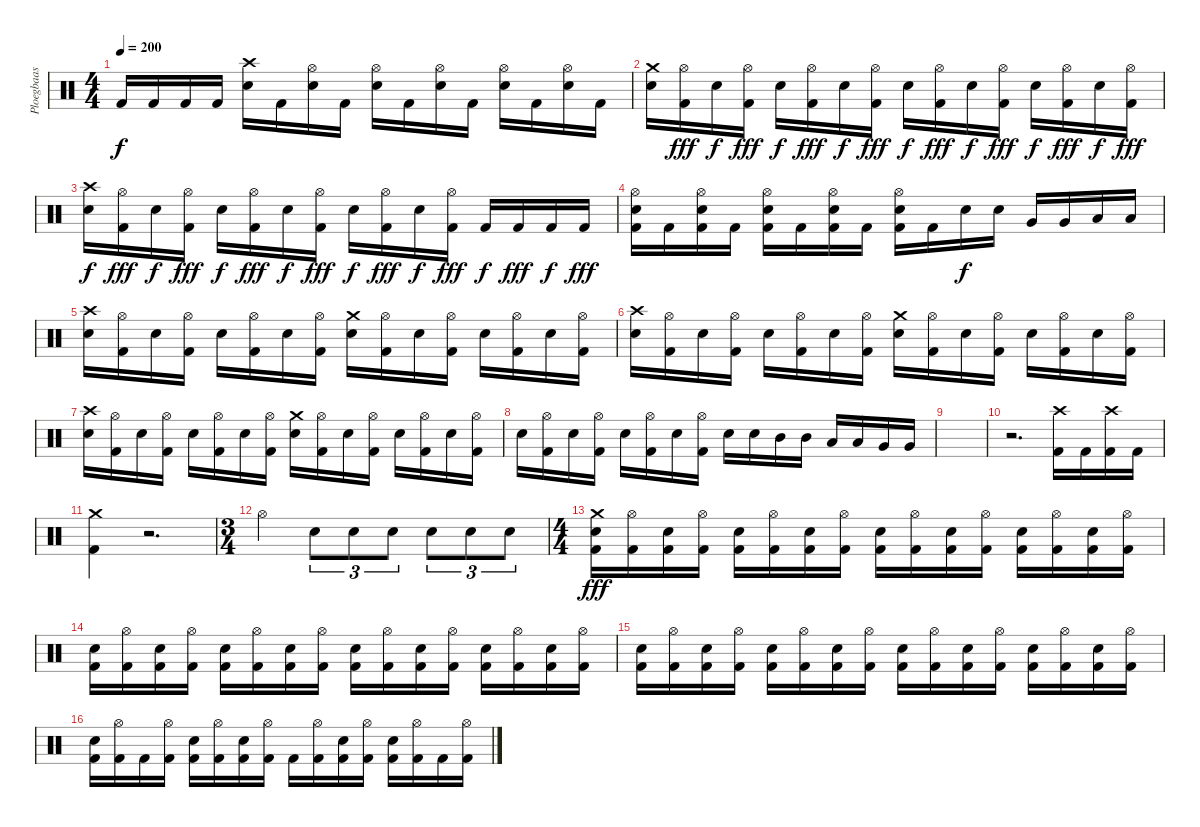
\track ("Ploegbaas" "Ploegbaas") {instrument percussion}
\staff {score}
\articulation defaults
\ts (4 4)
\tempo 200
\clef neutral
\ks c "Kick (hit) 2".16{dy f} "Kick (hit) 2".16 "Kick (hit) 2".16 "Kick (hit) 2".16
("Crash high (hit)" "Electric Snare (hit)").16 "Kick (hit) 2".16 ("Hi-Hat (open)" "Electric Snare (hit)").16 "Kick (hit) 2".16 ("Hi-Hat (open)" "Electric Snare (hit)").16 "Kick (hit) 2".16 ("Hi-Hat (open)" "Electric Snare (hit)").16 "Kick (hit) 2".16 ("Hi-Hat (open)" "Electric Snare (hit)").16 "Kick (hit) 2".16 ("Hi-Hat (open)" "Electric Snare (hit)").16 "Kick (hit) 2".16 |
("Crash medium (hit)" "Electric Snare (hit)").16 ("Hi-Hat (open)" "Kick (hit) 2").16{dy fff} "Electric Snare (hit)".16{dy f} ("Hi-Hat (open)" "Kick (hit) 2").16{dy fff} "Electric Snare (hit)".16{dy f} ("Hi-Hat (open)" "Kick (hit) 2").16{dy fff} "Electric Snare (hit)".16{dy f} ("Hi-Hat (open)" "Kick (hit) 2").16{dy fff} "Electric Snare (hit)".16{dy f} ("Hi-Hat (open)" "Kick (hit) 2").16{dy fff} "Electric Snare (hit)".16{dy f} ("Hi-Hat (open)" "Kick (hit) 2").16{dy fff} "Electric Snare (hit)".16{dy f} ("Hi-Hat (open)" "Kick (hit) 2").16{dy fff} "Electric Snare (hit)".16{dy f} ("Hi-Hat (open)" "Kick (hit) 2").16{dy fff} |
("Crash high (hit)" "Electric Snare (hit)").16{dy f} ("Hi-Hat (open)" "Kick (hit) 2").16{dy fff} "Electric Snare (hit)".16{dy f} ("Hi-Hat (open)" "Kick (hit) 2").16{dy fff} "Electric Snare (hit)".16{dy f} ("Hi-Hat (open)" "Kick (hit) 2").16{dy fff} "Electric Snare (hit)".16{dy f} ("Hi-Hat (open)" "Kick (hit) 2").16{dy fff} "Electric Snare (hit)".16{dy f} ("Hi-Hat (open)" "Kick (hit) 2").16{dy fff} "Electric Snare (hit)".16{dy f} ("Hi-Hat (open)" "Kick (hit) 2").16{dy fff} "Kick (hit) 2".16{dy f} "Kick (hit) 2".16{dy fff} "Kick (hit) 2".16{dy f} "Kick (hit) 2".16{dy fff} |
("Hi-Hat (open)" "Electric Snare (hit)" "Kick (hit) 2").16 "Kick (hit) 2".16 ("Hi-Hat (open)" "Electric Snare (hit)" "Kick (hit) 2").16 "Kick (hit) 2".16 ("Hi-Hat (open)" "Electric Snare (hit)" "Kick (hit) 2").16 "Kick (hit) 2".16 ("Hi-Hat (open)" "Electric Snare (hit)" "Kick (hit) 2").16 "Kick (hit) 2".16 ("Hi-Hat (open)" "Electric Snare (hit)" "Kick (hit) 2").16 "Kick (hit) 2".16 "Electric Snare (hit)".16{dy f} "Electric Snare (hit)".16 "Very Low Tom (hit)".16 "Very Low Tom (hit)".16 "Low Floor Tom (hit)".16 "Low Floor Tom (hit)".16 |
("Crash high (hit)" "Electric Snare (hit)").16 ("Hi-Hat (open)" "Kick (hit) 2").16 "Electric Snare (hit)".16 ("Hi-Hat (open)" "Kick (hit) 2").16 "Electric Snare (hit)".16 ("Hi-Hat (open)" "Kick (hit) 2").16 "Electric Snare (hit)".16 ("Hi-Hat (open)" "Kick (hit) 2").16 ("Crash medium (hit)" "Electric Snare (hit)").16 ("Hi-Hat (open)" "Kick (hit) 2").16 "Electric Snare (hit)".16 ("Hi-Hat (open)" "Kick (hit) 2").16 "Electric Snare (hit)".16 ("Hi-Hat (open)" "Kick (hit) 2").16 "Electric Snare (hit)".16 ("Hi-Hat (open)" "Kick (hit) 2").16 |
("Crash high (hit)" "Electric Snare (hit)").16 ("Hi-Hat (open)" "Kick (hit) 2").16 "Electric Snare (hit)".16 ("Hi-Hat (open)" "Kick (hit) 2").16 "Electric Snare (hit)".16 ("Hi-Hat (open)" "Kick (hit) 2").16 "Electric Snare (hit)".16 ("Hi-Hat (open)" "Kick (hit) 2").16 ("Crash medium (hit)" "Electric Snare (hit)").16 ("Hi-Hat (open)" "Kick (hit) 2").16 "Electric Snare (hit)".16 ("Hi-Hat (open)" "Kick (hit) 2").16 "Electric Snare (hit)".16 ("Hi-Hat (open)" "Kick (hit) 2").16 "Electric Snare (hit)".16 ("Hi-Hat (open)" "Kick (hit) 2").16 |
("Crash high (hit)" "Electric Snare (hit)").16 ("Hi-Hat (open)" "Kick (hit) 2").16 "Electric Snare (hit)".16 ("Hi-Hat (open)" "Kick (hit) 2").16 "Electric Snare (hit)".16 ("Hi-Hat (open)" "Kick (hit) 2").16 "Electric Snare (hit)".16 ("Hi-Hat (open)" "Kick (hit) 2").16 ("Crash medium (hit)" "Electric Snare (hit)").16 ("Hi-Hat (open)" "Kick (hit) 2").16 "Electric Snare (hit)".16 ("Hi-Hat (open)" "Kick (hit) 2").16 "Electric Snare (hit)".16 ("Hi-Hat (open)" "Kick (hit) 2").16 "Electric Snare (hit)".16 ("Hi-Hat (open)" "Kick (hit) 2").16 |
"Electric Snare (hit)".16 ("Hi-Hat (open)" "Kick (hit) 2").16 "Electric Snare (hit)".16 ("Hi-Hat (open)" "Kick (hit) 2").16 "Electric Snare (hit)".16 ("Hi-Hat (open)" "Kick (hit) 2").16 "Electric Snare (hit)".16 ("Hi-Hat (open)" "Kick (hit) 2").16 "Electric Snare (hit)".16 "Electric Snare (hit)".16 "Mid Tom (hit)".16 "Mid Tom (hit)".16 "Low Tom (hit)".16 "Low Tom (hit)".16 "Very Low Tom (hit)".16 "Very Low Tom (hit)".16 |
|
r.2{d} ("Crash high (hit)" "Kick (hit) 2").16 "Kick (hit) 2".16 ("Crash high (hit)" "Kick (hit) 2").16 "Kick (hit) 2".16 |
("Crash medium (hit)" "Kick (hit) 2").4 r.2{d volume 0} |
\ts (3 4)
"Hi-Hat (open)".4{volume 16} "Electric Snare (hit)".8{tu (3 2)} "Electric Snare (hit)".8{tu (3 2)} "Electric Snare (hit)".8{tu (3 2)} "Electric Snare (hit)".8{tu (3 2)} "Electric Snare (hit)".8{tu (3 2)} "Electric Snare (hit)".8{tu (3 2)} |
\ts (4 4)
("Crash medium (hit)" "Electric Snare (hit)" "Kick (hit) 2").16{dy fff} ("Hi-Hat (open)" "Kick (hit) 2").16 ("Electric Snare (hit)" "Kick (hit) 2").16 ("Hi-Hat (open)" "Kick (hit) 2").16 ("Electric Snare (hit)" "Kick (hit) 2").16 ("Hi-Hat (open)" "Kick (hit) 2").16 ("Electric Snare (hit)" "Kick (hit) 2").16 ("Hi-Hat (open)" "Kick (hit) 2").16 ("Electric Snare (hit)" "Kick (hit) 2").16 ("Hi-Hat (open)" "Kick (hit) 2").16 ("Electric Snare (hit)" "Kick (hit) 2").16 ("Hi-Hat (open)" "Kick (hit) 2").16 ("Electric Snare (hit)" "Kick (hit) 2").16 ("Hi-Hat (open)" "Kick (hit) 2").16 ("Electric Snare (hit)" "Kick (hit) 2").16 ("Hi-Hat (open)" "Kick (hit) 2").16 |
("Electric Snare (hit)" "Kick (hit) 2").16 ("Hi-Hat (open)" "Kick (hit) 2").16 ("Electric Snare (hit)" "Kick (hit) 2").16 ("Hi-Hat (open)" "Kick (hit) 2").16 ("Electric Snare (hit)" "Kick (hit) 2").16 ("Hi-Hat (open)" "Kick (hit) 2").16 ("Electric Snare (hit)" "Kick (hit) 2").16 ("Hi-Hat (open)" "Kick (hit) 2").16 ("Electric Snare (hit)" "Kick (hit) 2").16 ("Hi-Hat (open)" "Kick (hit) 2").16 ("Electric Snare (hit)" "Kick (hit) 2").16 ("Hi-Hat (open)" "Kick (hit) 2").16 ("Electric Snare (hit)" "Kick (hit) 2").16 ("Hi-Hat (open)" "Kick (hit) 2").16 ("Electric Snare (hit)" "Kick (hit) 2").16 ("Hi-Hat (open)" "Kick (hit) 2").16 |
("Electric Snare (hit)" "Kick (hit) 2").16 ("Hi-Hat (open)" "Kick (hit) 2").16 ("Electric Snare (hit)" "Kick (hit) 2").16 ("Hi-Hat (open)" "Kick (hit) 2").16 ("Electric Snare (hit)" "Kick (hit) 2").16 ("Hi-Hat (open)" "Kick (hit) 2").16 ("Electric Snare (hit)" "Kick (hit) 2").16 ("Hi-Hat (open)" "Kick (hit) 2").16 ("Electric Snare (hit)" "Kick (hit) 2").16 ("Hi-Hat (open)" "Kick (hit) 2").16 ("Electric Snare (hit)" "Kick (hit) 2").16 ("Hi-Hat (open)" "Kick (hit) 2").16 ("Electric Snare (hit)" "Kick (hit) 2").16 ("Hi-Hat (open)" "Kick (hit) 2").16 ("Electric Snare (hit)" "Kick (hit) 2").16 ("Hi-Hat (open)" "Kick (hit) 2").16 |
("Electric Snare (hit)" "Kick (hit) 2").16 ("Hi-Hat (open)" "Kick (hit) 2").16 "Kick (hit) 2".16 ("Hi-Hat (open)" "Kick (hit) 2").16 ("Electric Snare (hit)" "Kick (hit) 2").16 ("Hi-Hat (open)" "Kick (hit) 2").16 ("Electric Snare (hit)" "Kick (hit) 2").16 ("Hi-Hat (open)" "Kick (hit) 2").16 "Kick (hit) 2".16 ("Hi-Hat (open)" "Kick (hit) 2").16 ("Electric Snare (hit)" "Kick (hit) 2").16 ("Hi-Hat (open)" "Kick (hit) 2").16 ("Electric Snare (hit)" "Kick (hit) 2").16 ("Hi-Hat (open)" "Kick (hit) 2").16 "Kick (hit) 2".16 ("Hi-Hat (open)" "Kick (hit) 2").16
